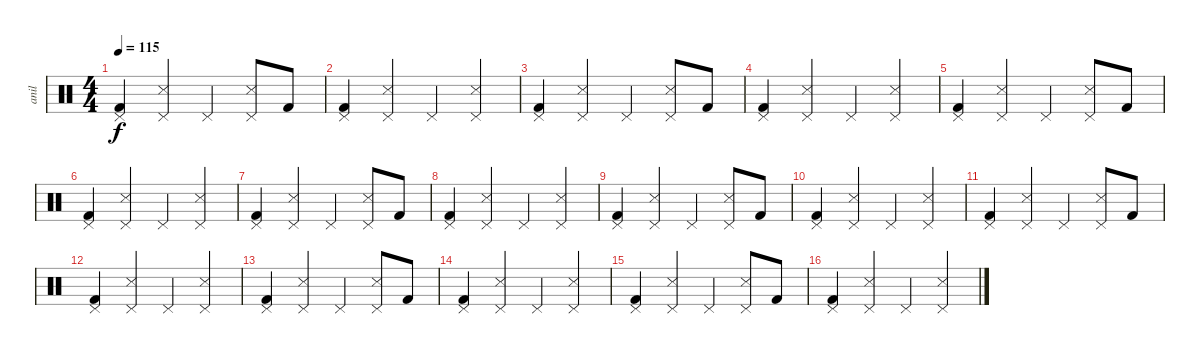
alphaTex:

\track ("anil " "anil ") {instrument percussion}
\staff {score}
\articulation defaults
\ts (4 4)
\tempo 115
\clef neutral
\ks c
("Pedal Hi-Hat (hit)" "Kick (hit) 2").4{dy f} ("Pedal Hi-Hat (hit)" "Snare (side stick) 3").4 "Pedal Hi-Hat (hit)".4 ("Pedal Hi-Hat (hit)" "Snare (side stick) 3").8 "Kick (hit) 2".8 |
("Pedal Hi-Hat (hit)" "Kick (hit) 2").4 ("Pedal Hi-Hat (hit)" "Snare (side stick) 3").4 "Pedal Hi-Hat (hit)".4 ("Pedal Hi-Hat (hit)" "Snare (side stick) 3").4 |
("Pedal Hi-Hat (hit)" "Kick (hit) 2").4 ("Pedal Hi-Hat (hit)" "Snare (side stick) 3").4 "Pedal Hi-Hat (hit)".4 ("Pedal Hi-Hat (hit)" "Snare (side stick) 3").8 "Kick (hit) 2".8 |
("Pedal Hi-Hat (hit)" "Kick (hit) 2").4 ("Pedal Hi-Hat (hit)" "Snare (side stick) 3").4 "Pedal Hi-Hat (hit)".4 ("Pedal Hi-Hat (hit)" "Snare (side stick) 3").4 |
("Pedal Hi-Hat (hit)" "Kick (hit) 2").4 ("Pedal Hi-Hat (hit)" "Snare (side stick) 3").4 "Pedal Hi-Hat (hit)".4 ("Pedal Hi-Hat (hit)" "Snare (side stick) 3").8 "Kick (hit) 2".8 |
("Pedal Hi-Hat (hit)" "Kick (hit) 2").4 ("Pedal Hi-Hat (hit)" "Snare (side stick) 3").4 "Pedal Hi-Hat (hit)".4 ("Pedal Hi-Hat (hit)" "Snare (side stick) 3").4 |
("Pedal Hi-Hat (hit)" "Kick (hit) 2").4 ("Pedal Hi-Hat (hit)" "Snare (side stick) 3").4 "Pedal Hi-Hat (hit)".4 ("Pedal Hi-Hat (hit)" "Snare (side stick) 3").8 "Kick (hit) 2".8 |
("Pedal Hi-Hat (hit)" "Kick (hit) 2").4 ("Pedal Hi-Hat (hit)" "Snare (side stick) 3").4 "Pedal Hi-Hat (hit)".4 ("Pedal Hi-Hat (hit)" "Snare (side stick) 3").4 |
("Pedal Hi-Hat (hit)" "Kick (hit) 2").4 ("Pedal Hi-Hat (hit)" "Snare (side stick) 3").4 "Pedal Hi-Hat (hit)".4 ("Pedal Hi-Hat (hit)" "Snare (side stick) 3").8 "Kick (hit) 2".8 |
("Pedal Hi-Hat (hit)" "Kick (hit) 2").4 ("Pedal Hi-Hat (hit)" "Snare (side stick) 3").4 "Pedal Hi-Hat (hit)".4 ("Pedal Hi-Hat (hit)" "Snare (side stick) 3").4 |
("Pedal Hi-Hat (hit)" "Kick (hit) 2").4 ("Pedal Hi-Hat (hit)" "Snare (side stick) 3").4 "Pedal Hi-Hat (hit)".4 ("Pedal Hi-Hat (hit)" "Snare (side stick) 3").8 "Kick (hit) 2".8 |
("Pedal Hi-Hat (hit)" "Kick (hit) 2").4 ("Pedal Hi-Hat (hit)" "Snare (side stick) 3").4 "Pedal Hi-Hat (hit)".4 ("Pedal Hi-Hat (hit)" "Snare (side stick) 3").4 |
("Pedal Hi-Hat (hit)" "Kick (hit) 2").4 ("Pedal Hi-Hat (hit)" "Snare (side stick) 3").4 "Pedal Hi-Hat (hit)".4 ("Pedal Hi-Hat (hit)" "Snare (side stick) 3").8 "Kick (hit) 2".8 |
("Pedal Hi-Hat (hit)" "Kick (hit) 2").4 ("Pedal Hi-Hat (hit)" "Snare (side stick) 3").4 "Pedal Hi-Hat (hit)".4 ("Pedal Hi-Hat (hit)" "Snare (side stick) 3").4 |
("Pedal Hi-Hat (hit)" "Kick (hit) 2").4 ("Pedal Hi-Hat (hit)" "Snare (side stick) 3").4 "Pedal Hi-Hat (hit)".4 ("Pedal Hi-Hat (hit)" "Snare (side stick) 3").8 "Kick (hit) 2".8 |
("Pedal Hi-Hat (hit)" "Kick (hit) 2").4 ("Pedal Hi-Hat (hit)" "Snare (side stick) 3").4 "Pedal Hi-Hat (hit)".4 ("Pedal Hi-Hat (hit)" "Snare (side stick) 3").4
